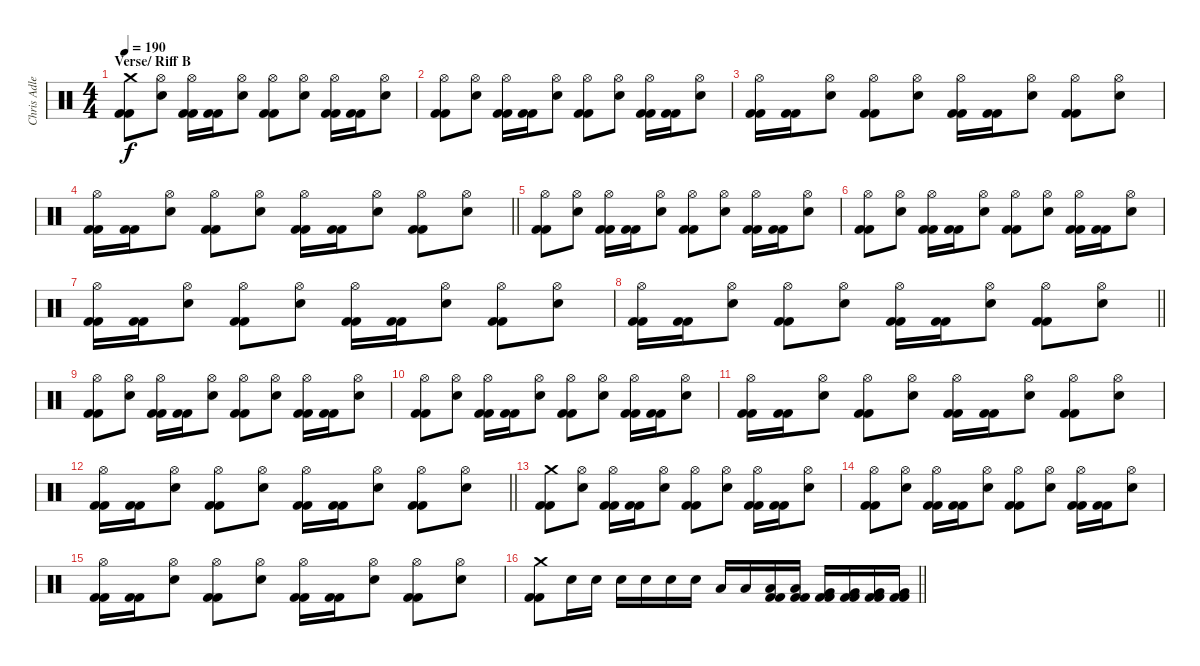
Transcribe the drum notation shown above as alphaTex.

\track ("Chris Adler" "Chris Adle") {instrument percussion}
\staff {score}
\articulation defaults
\ts (4 4)
\section ("" "Verse/ Riff B")
\tempo 190
\clef neutral
\ks c
("Crash medium (hit)" "Kick (hit) 2" "Kick (hit) 2").8{dy f} ("Hi-Hat (open)" "Electric Snare (hit)").8 ("Hi-Hat (open)" "Kick (hit) 2" "Kick (hit) 2").16 ("Kick (hit) 2" "Kick (hit) 2").16 ("Hi-Hat (open)" "Electric Snare (hit)").8 ("Hi-Hat (open)" "Kick (hit) 2" "Kick (hit) 2").8 ("Hi-Hat (open)" "Electric Snare (hit)").8 ("Hi-Hat (open)" "Kick (hit) 2" "Kick (hit) 2").16 ("Kick (hit) 2" "Kick (hit) 2").16 ("Hi-Hat (open)" "Electric Snare (hit)").8 |
("Hi-Hat (open)" "Kick (hit) 2" "Kick (hit) 2").8 ("Hi-Hat (open)" "Electric Snare (hit)").8 ("Hi-Hat (open)" "Kick (hit) 2" "Kick (hit) 2").16 ("Kick (hit) 2" "Kick (hit) 2").16 ("Hi-Hat (open)" "Electric Snare (hit)").8 ("Hi-Hat (open)" "Kick (hit) 2" "Kick (hit) 2").8 ("Hi-Hat (open)" "Electric Snare (hit)").8 ("Hi-Hat (open)" "Kick (hit) 2" "Kick (hit) 2").16 ("Kick (hit) 2" "Kick (hit) 2").16 ("Hi-Hat (open)" "Electric Snare (hit)").8 |
("Hi-Hat (open)" "Kick (hit) 2" "Kick (hit) 2").16 ("Kick (hit) 2" "Kick (hit) 2").16 ("Hi-Hat (open)" "Electric Snare (hit)").8 ("Hi-Hat (open)" "Kick (hit) 2" "Kick (hit) 2").8 ("Hi-Hat (open)" "Electric Snare (hit)").8 ("Hi-Hat (open)" "Kick (hit) 2" "Kick (hit) 2").16 ("Kick (hit) 2" "Kick (hit) 2").16 ("Hi-Hat (open)" "Electric Snare (hit)").8 ("Hi-Hat (open)" "Kick (hit) 2" "Kick (hit) 2").8 ("Hi-Hat (open)" "Electric Snare (hit)").8 |
\barLineRight lightlight
("Hi-Hat (open)" "Kick (hit) 2" "Kick (hit) 2").16 ("Kick (hit) 2" "Kick (hit) 2").16 ("Hi-Hat (open)" "Electric Snare (hit)").8 ("Hi-Hat (open)" "Kick (hit) 2" "Kick (hit) 2").8 ("Hi-Hat (open)" "Electric Snare (hit)").8 ("Hi-Hat (open)" "Kick (hit) 2" "Kick (hit) 2").16 ("Kick (hit) 2" "Kick (hit) 2").16 ("Hi-Hat (open)" "Electric Snare (hit)").8 ("Hi-Hat (open)" "Kick (hit) 2" "Kick (hit) 2").8 ("Hi-Hat (open)" "Electric Snare (hit)").8 |
("Hi-Hat (open)" "Kick (hit) 2" "Kick (hit) 2").8 ("Hi-Hat (open)" "Electric Snare (hit)").8 ("Hi-Hat (open)" "Kick (hit) 2" "Kick (hit) 2").16 ("Kick (hit) 2" "Kick (hit) 2").16 ("Hi-Hat (open)" "Electric Snare (hit)").8 ("Hi-Hat (open)" "Kick (hit) 2" "Kick (hit) 2").8 ("Hi-Hat (open)" "Electric Snare (hit)").8 ("Hi-Hat (open)" "Kick (hit) 2" "Kick (hit) 2").16 ("Kick (hit) 2" "Kick (hit) 2").16 ("Hi-Hat (open)" "Electric Snare (hit)").8 |
("Hi-Hat (open)" "Kick (hit) 2" "Kick (hit) 2").8 ("Hi-Hat (open)" "Electric Snare (hit)").8 ("Hi-Hat (open)" "Kick (hit) 2" "Kick (hit) 2").16 ("Kick (hit) 2" "Kick (hit) 2").16 ("Hi-Hat (open)" "Electric Snare (hit)").8 ("Hi-Hat (open)" "Kick (hit) 2" "Kick (hit) 2").8 ("Hi-Hat (open)" "Electric Snare (hit)").8 ("Hi-Hat (open)" "Kick (hit) 2" "Kick (hit) 2").16 ("Kick (hit) 2" "Kick (hit) 2").16 ("Hi-Hat (open)" "Electric Snare (hit)").8 |
("Hi-Hat (open)" "Kick (hit) 2" "Kick (hit) 2").16 ("Kick (hit) 2" "Kick (hit) 2").16 ("Hi-Hat (open)" "Electric Snare (hit)").8 ("Hi-Hat (open)" "Kick (hit) 2" "Kick (hit) 2").8 ("Hi-Hat (open)" "Electric Snare (hit)").8 ("Hi-Hat (open)" "Kick (hit) 2" "Kick (hit) 2").16 ("Kick (hit) 2" "Kick (hit) 2").16 ("Hi-Hat (open)" "Electric Snare (hit)").8 ("Hi-Hat (open)" "Kick (hit) 2" "Kick (hit) 2").8 ("Hi-Hat (open)" "Electric Snare (hit)").8 |
\barLineRight lightlight
("Hi-Hat (open)" "Kick (hit) 2" "Kick (hit) 2").16 ("Kick (hit) 2" "Kick (hit) 2").16 ("Hi-Hat (open)" "Electric Snare (hit)").8 ("Hi-Hat (open)" "Kick (hit) 2" "Kick (hit) 2").8 ("Hi-Hat (open)" "Electric Snare (hit)").8 ("Hi-Hat (open)" "Kick (hit) 2" "Kick (hit) 2").16 ("Kick (hit) 2" "Kick (hit) 2").16 ("Hi-Hat (open)" "Electric Snare (hit)").8 ("Hi-Hat (open)" "Kick (hit) 2" "Kick (hit) 2").8 ("Hi-Hat (open)" "Electric Snare (hit)").8 |
("Hi-Hat (open)" "Kick (hit) 2" "Kick (hit) 2").8 ("Hi-Hat (open)" "Electric Snare (hit)").8 ("Hi-Hat (open)" "Kick (hit) 2" "Kick (hit) 2").16 ("Kick (hit) 2" "Kick (hit) 2").16 ("Hi-Hat (open)" "Electric Snare (hit)").8 ("Hi-Hat (open)" "Kick (hit) 2" "Kick (hit) 2").8 ("Hi-Hat (open)" "Electric Snare (hit)").8 ("Hi-Hat (open)" "Kick (hit) 2" "Kick (hit) 2").16 ("Kick (hit) 2" "Kick (hit) 2").16 ("Hi-Hat (open)" "Electric Snare (hit)").8 |
("Hi-Hat (open)" "Kick (hit) 2" "Kick (hit) 2").8 ("Hi-Hat (open)" "Electric Snare (hit)").8 ("Hi-Hat (open)" "Kick (hit) 2" "Kick (hit) 2").16 ("Kick (hit) 2" "Kick (hit) 2").16 ("Hi-Hat (open)" "Electric Snare (hit)").8 ("Hi-Hat (open)" "Kick (hit) 2" "Kick (hit) 2").8 ("Hi-Hat (open)" "Electric Snare (hit)").8 ("Hi-Hat (open)" "Kick (hit) 2" "Kick (hit) 2").16 ("Kick (hit) 2" "Kick (hit) 2").16 ("Hi-Hat (open)" "Electric Snare (hit)").8 |
("Hi-Hat (open)" "Kick (hit) 2" "Kick (hit) 2").16 ("Kick (hit) 2" "Kick (hit) 2").16 ("Hi-Hat (open)" "Electric Snare (hit)").8 ("Hi-Hat (open)" "Kick (hit) 2" "Kick (hit) 2").8 ("Hi-Hat (open)" "Electric Snare (hit)").8 ("Hi-Hat (open)" "Kick (hit) 2" "Kick (hit) 2").16 ("Kick (hit) 2" "Kick (hit) 2").16 ("Hi-Hat (open)" "Electric Snare (hit)").8 ("Hi-Hat (open)" "Kick (hit) 2" "Kick (hit) 2").8 ("Hi-Hat (open)" "Electric Snare (hit)").8 |
\barLineRight lightlight
("Hi-Hat (open)" "Kick (hit) 2" "Kick (hit) 2").16 ("Kick (hit) 2" "Kick (hit) 2").16 ("Hi-Hat (open)" "Electric Snare (hit)").8 ("Hi-Hat (open)" "Kick (hit) 2" "Kick (hit) 2").8 ("Hi-Hat (open)" "Electric Snare (hit)").8 ("Hi-Hat (open)" "Kick (hit) 2" "Kick (hit) 2").16 ("Kick (hit) 2" "Kick (hit) 2").16 ("Hi-Hat (open)" "Electric Snare (hit)").8 ("Hi-Hat (open)" "Kick (hit) 2" "Kick (hit) 2").8 ("Hi-Hat (open)" "Electric Snare (hit)").8 |
("Crash medium (hit)" "Kick (hit) 2" "Kick (hit) 2").8 ("Hi-Hat (open)" "Electric Snare (hit)").8 ("Hi-Hat (open)" "Kick (hit) 2" "Kick (hit) 2").16 ("Kick (hit) 2" "Kick (hit) 2").16 ("Hi-Hat (open)" "Electric Snare (hit)").8 ("Hi-Hat (open)" "Kick (hit) 2" "Kick (hit) 2").8 ("Hi-Hat (open)" "Electric Snare (hit)").8 ("Hi-Hat (open)" "Kick (hit) 2" "Kick (hit) 2").16 ("Kick (hit) 2" "Kick (hit) 2").16 ("Hi-Hat (open)" "Electric Snare (hit)").8 |
("Hi-Hat (open)" "Kick (hit) 2" "Kick (hit) 2").8 ("Hi-Hat (open)" "Electric Snare (hit)").8 ("Hi-Hat (open)" "Kick (hit) 2" "Kick (hit) 2").16 ("Kick (hit) 2" "Kick (hit) 2").16 ("Hi-Hat (open)" "Electric Snare (hit)").8 ("Hi-Hat (open)" "Kick (hit) 2" "Kick (hit) 2").8 ("Hi-Hat (open)" "Electric Snare (hit)").8 ("Hi-Hat (open)" "Kick (hit) 2" "Kick (hit) 2").16 ("Kick (hit) 2" "Kick (hit) 2").16 ("Hi-Hat (open)" "Electric Snare (hit)").8 |
("Hi-Hat (open)" "Kick (hit) 2" "Kick (hit) 2").16 ("Kick (hit) 2" "Kick (hit) 2").16 ("Hi-Hat (open)" "Electric Snare (hit)").8 ("Hi-Hat (open)" "Kick (hit) 2" "Kick (hit) 2").8 ("Hi-Hat (open)" "Electric Snare (hit)").8 ("Hi-Hat (open)" "Kick (hit) 2" "Kick (hit) 2").16 ("Kick (hit) 2" "Kick (hit) 2").16 ("Hi-Hat (open)" "Electric Snare (hit)").8 ("Hi-Hat (open)" "Kick (hit) 2" "Kick (hit) 2").8 ("Hi-Hat (open)" "Electric Snare (hit)").8 |
\barLineRight lightlight
("Crash medium (hit)" "Kick (hit) 2" "Kick (hit) 2").8 "Electric Snare (hit)".16 "Electric Snare (hit)".16 "Electric Snare (hit)".16 "Electric Snare (hit)".16 "Electric Snare (hit)".16 "Electric Snare (hit)".16 "Low Tom (hit)".16 "Low Tom (hit)".16 ("Low Tom (hit)" "Kick (hit) 2" "Kick (hit) 2").16 ("Low Tom (hit)" "Kick (hit) 2" "Kick (hit) 2").16 ("Very Low Tom (hit)" "Kick (hit) 2" "Kick (hit) 2").16 ("Very Low Tom (hit)" "Kick (hit) 2" "Kick (hit) 2").16 ("Very Low Tom (hit)" "Kick (hit) 2" "Kick (hit) 2").16 ("Very Low Tom (hit)" "Kick (hit) 2" "Kick (hit) 2").16
